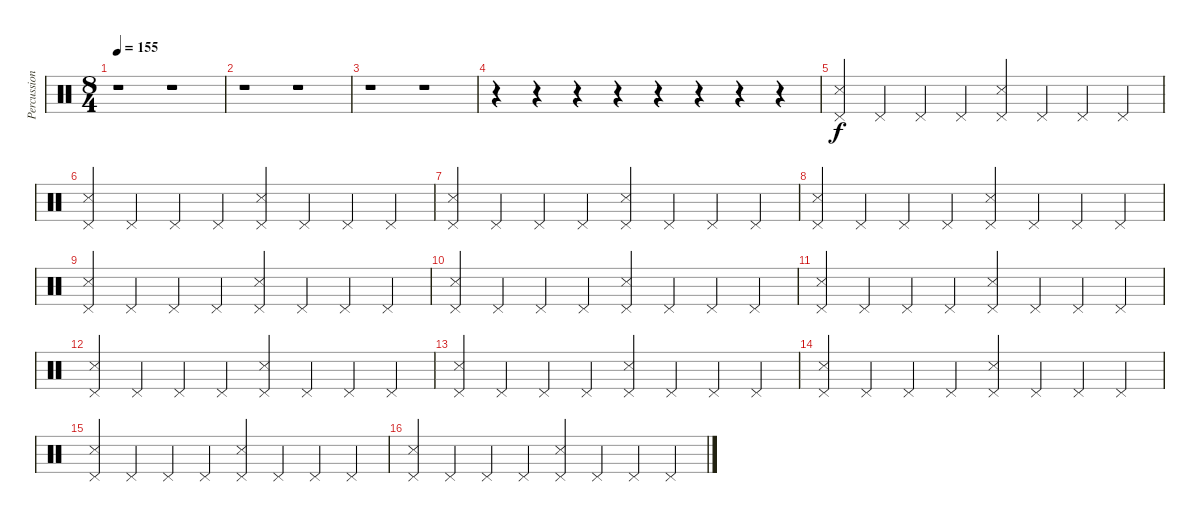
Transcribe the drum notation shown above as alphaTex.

\track ("Percussion" "Percussion") {instrument percussion}
\staff {score}
\articulation defaults
\ts (8 4)
\tempo 155
\clef neutral
\ks c
r.1{dy f} r.1 |
r.1 r.1 |
r.1 r.1 |
r.4 r.4 r.4 r.4 r.4 r.4 r.4 r.4 |
("Snare (side stick) 3" "Pedal Hi-Hat (hit)").4 "Pedal Hi-Hat (hit)".4 "Pedal Hi-Hat (hit)".4 "Pedal Hi-Hat (hit)".4 ("Pedal Hi-Hat (hit)" "Snare (side stick) 3").4 "Pedal Hi-Hat (hit)".4 "Pedal Hi-Hat (hit)".4 "Pedal Hi-Hat (hit)".4 |
("Snare (side stick) 3" "Pedal Hi-Hat (hit)").4 "Pedal Hi-Hat (hit)".4 "Pedal Hi-Hat (hit)".4 "Pedal Hi-Hat (hit)".4 ("Pedal Hi-Hat (hit)" "Snare (side stick) 3").4 "Pedal Hi-Hat (hit)".4 "Pedal Hi-Hat (hit)".4 "Pedal Hi-Hat (hit)".4 |
("Snare (side stick) 3" "Pedal Hi-Hat (hit)").4 "Pedal Hi-Hat (hit)".4 "Pedal Hi-Hat (hit)".4 "Pedal Hi-Hat (hit)".4 ("Pedal Hi-Hat (hit)" "Snare (side stick) 3").4 "Pedal Hi-Hat (hit)".4 "Pedal Hi-Hat (hit)".4 "Pedal Hi-Hat (hit)".4 |
("Snare (side stick) 3" "Pedal Hi-Hat (hit)").4 "Pedal Hi-Hat (hit)".4 "Pedal Hi-Hat (hit)".4 "Pedal Hi-Hat (hit)".4 ("Pedal Hi-Hat (hit)" "Snare (side stick) 3").4 "Pedal Hi-Hat (hit)".4 "Pedal Hi-Hat (hit)".4 "Pedal Hi-Hat (hit)".4 |
("Snare (side stick) 3" "Pedal Hi-Hat (hit)").4 "Pedal Hi-Hat (hit)".4 "Pedal Hi-Hat (hit)".4 "Pedal Hi-Hat (hit)".4 ("Pedal Hi-Hat (hit)" "Snare (side stick) 3").4 "Pedal Hi-Hat (hit)".4 "Pedal Hi-Hat (hit)".4 "Pedal Hi-Hat (hit)".4 |
("Snare (side stick) 3" "Pedal Hi-Hat (hit)").4 "Pedal Hi-Hat (hit)".4 "Pedal Hi-Hat (hit)".4 "Pedal Hi-Hat (hit)".4 ("Pedal Hi-Hat (hit)" "Snare (side stick) 3").4 "Pedal Hi-Hat (hit)".4 "Pedal Hi-Hat (hit)".4 "Pedal Hi-Hat (hit)".4 |
("Snare (side stick) 3" "Pedal Hi-Hat (hit)").4 "Pedal Hi-Hat (hit)".4 "Pedal Hi-Hat (hit)".4 "Pedal Hi-Hat (hit)".4 ("Pedal Hi-Hat (hit)" "Snare (side stick) 3").4 "Pedal Hi-Hat (hit)".4 "Pedal Hi-Hat (hit)".4 "Pedal Hi-Hat (hit)".4 |
("Snare (side stick) 3" "Pedal Hi-Hat (hit)").4 "Pedal Hi-Hat (hit)".4 "Pedal Hi-Hat (hit)".4 "Pedal Hi-Hat (hit)".4 ("Pedal Hi-Hat (hit)" "Snare (side stick) 3").4 "Pedal Hi-Hat (hit)".4 "Pedal Hi-Hat (hit)".4 "Pedal Hi-Hat (hit)".4 |
("Snare (side stick) 3" "Pedal Hi-Hat (hit)").4 "Pedal Hi-Hat (hit)".4 "Pedal Hi-Hat (hit)".4 "Pedal Hi-Hat (hit)".4 ("Pedal Hi-Hat (hit)" "Snare (side stick) 3").4 "Pedal Hi-Hat (hit)".4 "Pedal Hi-Hat (hit)".4 "Pedal Hi-Hat (hit)".4 |
("Snare (side stick) 3" "Pedal Hi-Hat (hit)").4 "Pedal Hi-Hat (hit)".4 "Pedal Hi-Hat (hit)".4 "Pedal Hi-Hat (hit)".4 ("Pedal Hi-Hat (hit)" "Snare (side stick) 3").4 "Pedal Hi-Hat (hit)".4 "Pedal Hi-Hat (hit)".4 "Pedal Hi-Hat (hit)".4 |
("Snare (side stick) 3" "Pedal Hi-Hat (hit)").4 "Pedal Hi-Hat (hit)".4 "Pedal Hi-Hat (hit)".4 "Pedal Hi-Hat (hit)".4 ("Pedal Hi-Hat (hit)" "Snare (side stick) 3").4 "Pedal Hi-Hat (hit)".4 "Pedal Hi-Hat (hit)".4 "Pedal Hi-Hat (hit)".4 |
("Snare (side stick) 3" "Pedal Hi-Hat (hit)").4 "Pedal Hi-Hat (hit)".4 "Pedal Hi-Hat (hit)".4 "Pedal Hi-Hat (hit)".4 ("Pedal Hi-Hat (hit)" "Snare (side stick) 3").4 "Pedal Hi-Hat (hit)".4 "Pedal Hi-Hat (hit)".4 "Pedal Hi-Hat (hit)".4
